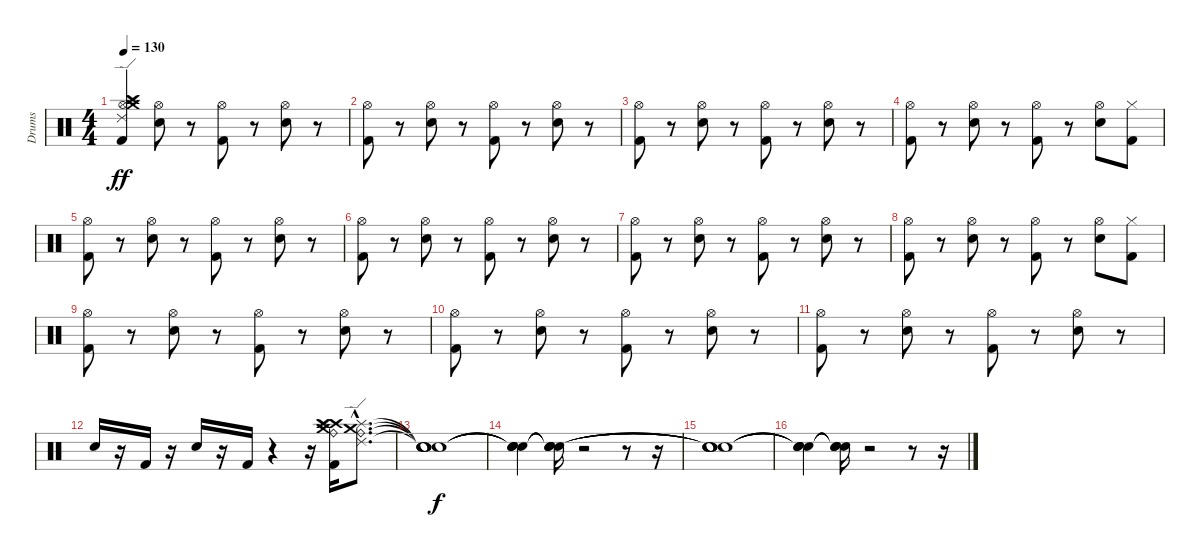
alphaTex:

\track ("Drums" "Drums") {instrument percussion}
\staff {score}
\articulation defaults
\ts (4 4)
\tempo 130
\clef neutral
\ks c
("Kick (hit) 2" "Hi-Hat (open)" "Crash high (hit)" "Splash (hit)" "Crash medium (hit)" "Ride (edge) 2").4{dy ff} ("Snare (hit) 2" "Hi-Hat (open)").8 r.8 ("Kick (hit) 2" "Hi-Hat (open)").8 r.8 ("Snare (hit) 2" "Hi-Hat (open)").8 r.8 |
("Kick (hit) 2" "Hi-Hat (open)").8 r.8 ("Snare (hit) 2" "Hi-Hat (open)").8 r.8 ("Kick (hit) 2" "Hi-Hat (open)").8 r.8 ("Snare (hit) 2" "Hi-Hat (open)").8 r.8 |
("Kick (hit) 2" "Hi-Hat (open)").8 r.8 ("Snare (hit) 2" "Hi-Hat (open)").8 r.8 ("Kick (hit) 2" "Hi-Hat (open)").8 r.8 ("Snare (hit) 2" "Hi-Hat (open)").8 r.8 |
("Kick (hit) 2" "Hi-Hat (open)").8 r.8 ("Snare (hit) 2" "Hi-Hat (open)").8 r.8 ("Kick (hit) 2" "Hi-Hat (open)").8 r.8 ("Snare (hit) 2" "Hi-Hat (open)").8 ("Kick (hit) 2" "Hi-Hat (closed)").8 |
("Kick (hit) 2" "Hi-Hat (open)").8 r.8 ("Snare (hit) 2" "Hi-Hat (open)").8 r.8 ("Kick (hit) 2" "Hi-Hat (open)").8 r.8 ("Snare (hit) 2" "Hi-Hat (open)").8 r.8 |
("Kick (hit) 2" "Hi-Hat (open)").8 r.8 ("Snare (hit) 2" "Hi-Hat (open)").8 r.8 ("Kick (hit) 2" "Hi-Hat (open)").8 r.8 ("Snare (hit) 2" "Hi-Hat (open)").8 r.8 |
("Kick (hit) 2" "Hi-Hat (open)").8 r.8 ("Snare (hit) 2" "Hi-Hat (open)").8 r.8 ("Kick (hit) 2" "Hi-Hat (open)").8 r.8 ("Snare (hit) 2" "Hi-Hat (open)").8 r.8 |
("Kick (hit) 2" "Hi-Hat (open)").8 r.8 ("Snare (hit) 2" "Hi-Hat (open)").8 r.8 ("Kick (hit) 2" "Hi-Hat (open)").8 r.8 ("Snare (hit) 2" "Hi-Hat (open)").8 ("Kick (hit) 2" "Hi-Hat (closed)").8 |
("Kick (hit) 2" "Hi-Hat (open)").8 r.8 ("Snare (hit) 2" "Hi-Hat (open)").8 r.8 ("Kick (hit) 2" "Hi-Hat (open)").8 r.8 ("Snare (hit) 2" "Hi-Hat (open)").8 r.8 |
("Kick (hit) 2" "Hi-Hat (open)").8 r.8 ("Snare (hit) 2" "Hi-Hat (open)").8 r.8 ("Kick (hit) 2" "Hi-Hat (open)").8 r.8 ("Snare (hit) 2" "Hi-Hat (open)").8 r.8 |
("Kick (hit) 2" "Hi-Hat (open)").8 r.8 ("Snare (hit) 2" "Hi-Hat (open)").8 r.8 ("Kick (hit) 2" "Hi-Hat (open)").8 r.8 ("Snare (hit) 2" "Hi-Hat (open)").8 r.8 |
"Snare (hit) 2".16 r.16 "Kick (hit) 2".16 r.16 "Snare (hit) 2".16 r.16 "Kick (hit) 2".16 r.4 r.16 ("Kick (hit) 2" "Crash high (hit)" "Crash high (hit)" "Ride (bell)" "Splash (hit)" "Crash medium (hit)").16 ("Ride (bell)"{hac} "Splash (hit)"{hac} "Crash medium (hit)"{hac} "Ride (edge) 2"{hac}).8{d} |
("Snare (hit)"{t} "Snare (hit)"{t} "Snare (hit)"{t} "Snare (hit)"{t}).1{dy f} |
("Snare (hit)"{t} "Snare (hit)"{t} "Snare (hit)"{t} "Snare (hit)"{t}).4 ("Snare (hit)"{t} "Snare (hit)"{t} "Snare (hit)"{t} "Snare (hit)"{t}).16 r.2 r.8 r.16 |
("Snare (hit)"{t} "Snare (hit)"{t} "Snare (hit)"{t} "Snare (hit)"{t}).1 |
("Snare (hit)"{t} "Snare (hit)"{t} "Snare (hit)"{t} "Snare (hit)"{t}).4 ("Snare (hit)"{t} "Snare (hit)"{t} "Snare (hit)"{t} "Snare (hit)"{t}).16 r.2 r.8 r.16
